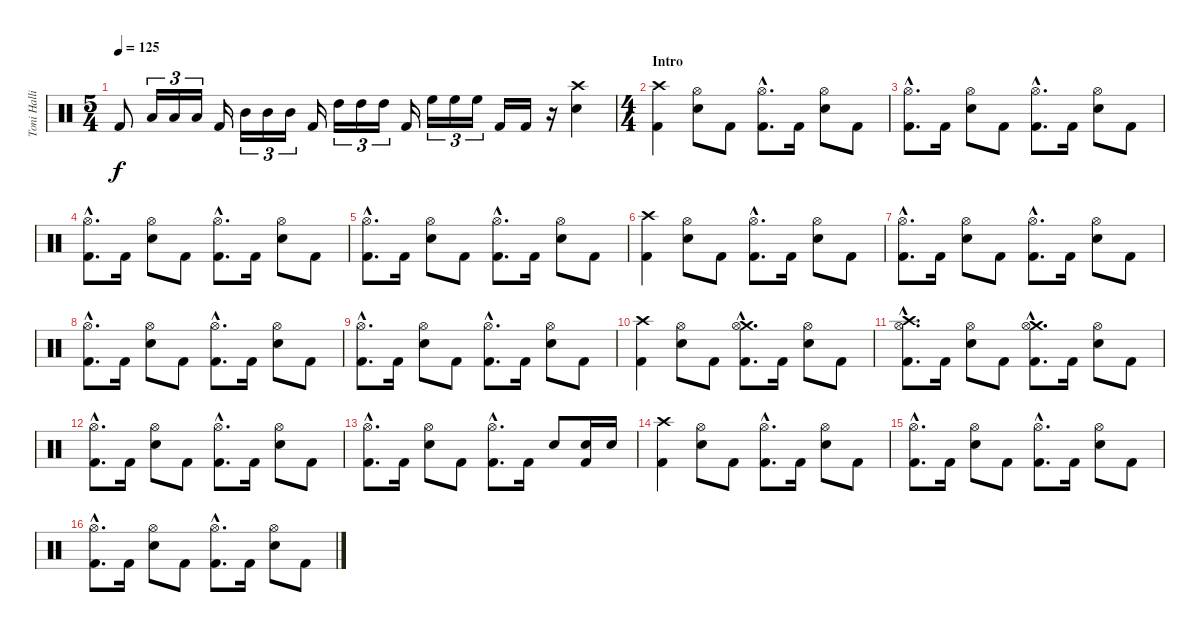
\track ("Toni Hallio" "Toni Halli") {instrument percussion}
\staff {score}
\articulation defaults
\ts (5 4)
\tempo 125
\clef neutral
\ks c "Kick (hit) 2".8{dy f} "Low Tom (hit)".16{tu (3 2)} "Low Tom (hit)".16{tu (3 2)} "Low Tom (hit)".16{tu (3 2)} "Kick (hit) 2".16 "Mid Tom (hit)".16{tu (3 2)} "Mid Tom (hit)".16{tu (3 2)} "Mid Tom (hit)".16{tu (3 2)} "Kick (hit) 2".16 "High Tom (hit)".16{tu (3 2)} "High Tom (hit)".16{tu (3 2)} "High Tom (hit)".16{tu (3 2)} "Kick (hit) 2".16 "High Floor Tom (hit)".16{tu (3 2)} "High Floor Tom (hit)".16{tu (3 2)} "High Floor Tom (hit)".16{tu (3 2)} "Kick (hit) 2".16 "Kick (hit) 2".16
r.16 ("Snare (hit) 2" "Crash high (hit)").4 |
\ts (4 4)
\section ("" "Intro")
("Crash high (hit)" "Kick (hit) 2").4 ("Snare (hit) 2" "Hi-Hat (open)").8 "Kick (hit) 2".8 ("Hi-Hat (open)"{hac} "Kick (hit) 2"{hac}).8{d} "Kick (hit) 2".16 ("Snare (hit) 2" "Hi-Hat (open)").8 "Kick (hit) 2".8 |
("Hi-Hat (open)"{hac} "Kick (hit) 2"{hac}).8{d} "Kick (hit) 2".16 ("Snare (hit) 2" "Hi-Hat (open)").8 "Kick (hit) 2".8 ("Hi-Hat (open)"{hac} "Kick (hit) 2"{hac}).8{d} "Kick (hit) 2".16 ("Snare (hit) 2" "Hi-Hat (open)").8 "Kick (hit) 2".8 |
("Hi-Hat (open)"{hac} "Kick (hit) 2"{hac}).8{d} "Kick (hit) 2".16 ("Snare (hit) 2" "Hi-Hat (open)").8 "Kick (hit) 2".8 ("Hi-Hat (open)"{hac} "Kick (hit) 2"{hac}).8{d} "Kick (hit) 2".16 ("Snare (hit) 2" "Hi-Hat (open)").8 "Kick (hit) 2".8 |
("Hi-Hat (open)"{hac} "Kick (hit) 2"{hac}).8{d} "Kick (hit) 2".16 ("Snare (hit) 2" "Hi-Hat (open)").8 "Kick (hit) 2".8 ("Hi-Hat (open)"{hac} "Kick (hit) 2"{hac}).8{d} "Kick (hit) 2".16 ("Snare (hit) 2" "Hi-Hat (open)").8 "Kick (hit) 2".8 |
("Crash high (hit)" "Kick (hit) 2").4 ("Snare (hit) 2" "Hi-Hat (open)").8 "Kick (hit) 2".8 ("Hi-Hat (open)"{hac} "Kick (hit) 2"{hac}).8{d} "Kick (hit) 2".16 ("Snare (hit) 2" "Hi-Hat (open)").8 "Kick (hit) 2".8 |
("Hi-Hat (open)"{hac} "Kick (hit) 2"{hac}).8{d} "Kick (hit) 2".16 ("Snare (hit) 2" "Hi-Hat (open)").8 "Kick (hit) 2".8 ("Hi-Hat (open)"{hac} "Kick (hit) 2"{hac}).8{d} "Kick (hit) 2".16 ("Snare (hit) 2" "Hi-Hat (open)").8 "Kick (hit) 2".8 |
("Hi-Hat (open)"{hac} "Kick (hit) 2"{hac}).8{d} "Kick (hit) 2".16 ("Snare (hit) 2" "Hi-Hat (open)").8 "Kick (hit) 2".8 ("Hi-Hat (open)"{hac} "Kick (hit) 2"{hac}).8{d} "Kick (hit) 2".16 ("Snare (hit) 2" "Hi-Hat (open)").8 "Kick (hit) 2".8 |
("Hi-Hat (open)"{hac} "Kick (hit) 2"{hac}).8{d} "Kick (hit) 2".16 ("Snare (hit) 2" "Hi-Hat (open)").8 "Kick (hit) 2".8 ("Hi-Hat (open)"{hac} "Kick (hit) 2"{hac}).8{d} "Kick (hit) 2".16 ("Snare (hit) 2" "Hi-Hat (open)").8 "Kick (hit) 2".8 |
("Crash high (hit)" "Kick (hit) 2").4 ("Snare (hit) 2" "Hi-Hat (open)").8 "Kick (hit) 2".8 ("Crash medium (hit)"{hac} "Hi-Hat (open)"{hac} "Kick (hit) 2"{hac}).8{d} "Kick (hit) 2".16 ("Snare (hit) 2" "Hi-Hat (open)").8 "Kick (hit) 2".8 |
("Crash high (hit)"{hac} "Hi-Hat (open)"{hac} "Kick (hit) 2"{hac}).8{d} "Kick (hit) 2".16 ("Snare (hit) 2" "Hi-Hat (open)").8 "Kick (hit) 2".8 ("Crash medium (hit)"{hac} "Hi-Hat (open)"{hac} "Kick (hit) 2"{hac}).8{d} "Kick (hit) 2".16 ("Snare (hit) 2" "Hi-Hat (open)").8 "Kick (hit) 2".8 |
("Hi-Hat (open)"{hac} "Kick (hit) 2"{hac}).8{d} "Kick (hit) 2".16 ("Snare (hit) 2" "Hi-Hat (open)").8 "Kick (hit) 2".8 ("Hi-Hat (open)"{hac} "Kick (hit) 2"{hac}).8{d} "Kick (hit) 2".16 ("Snare (hit) 2" "Hi-Hat (open)").8 "Kick (hit) 2".8 |
("Hi-Hat (open)"{hac} "Kick (hit) 2"{hac}).8{d} "Kick (hit) 2".16 ("Snare (hit) 2" "Hi-Hat (open)").8 "Kick (hit) 2".8 ("Hi-Hat (open)"{hac} "Kick (hit) 2"{hac}).8{d} "Kick (hit) 2".16 "Snare (hit) 2".8 ("Snare (hit) 2" "Kick (hit) 2").16 "Snare (hit) 2".16 |
("Crash high (hit)" "Kick (hit) 2").4 ("Snare (hit) 2" "Hi-Hat (open)").8 "Kick (hit) 2".8 ("Hi-Hat (open)"{hac} "Kick (hit) 2"{hac}).8{d} "Kick (hit) 2".16 ("Snare (hit) 2" "Hi-Hat (open)").8 "Kick (hit) 2".8 |
("Hi-Hat (open)"{hac} "Kick (hit) 2"{hac}).8{d} "Kick (hit) 2".16 ("Snare (hit) 2" "Hi-Hat (open)").8 "Kick (hit) 2".8 ("Hi-Hat (open)"{hac} "Kick (hit) 2"{hac}).8{d} "Kick (hit) 2".16 ("Snare (hit) 2" "Hi-Hat (open)").8 "Kick (hit) 2".8 |
("Hi-Hat (open)"{hac} "Kick (hit) 2"{hac}).8{d} "Kick (hit) 2".16 ("Snare (hit) 2" "Hi-Hat (open)").8 "Kick (hit) 2".8 ("Hi-Hat (open)"{hac} "Kick (hit) 2"{hac}).8{d} "Kick (hit) 2".16 ("Snare (hit) 2" "Hi-Hat (open)").8 "Kick (hit) 2".8
